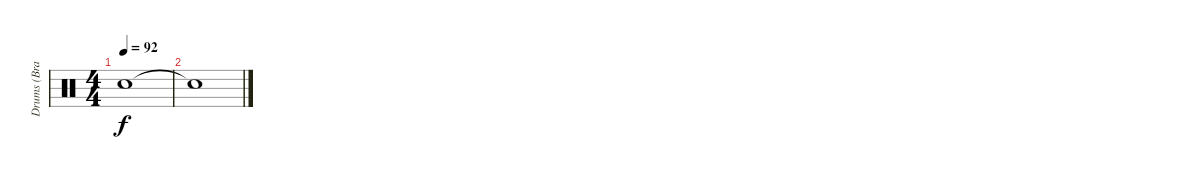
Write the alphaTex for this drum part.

\track ("Drums (Brandon Saller)" "Drums (Bra") {instrument percussion}
\staff {score}
\articulation defaults
\ts (4 4)
\tempo 92
\clef neutral
\ks c "Snare (hit)"{t}.1{dy f}
|
"Snare (hit)"{t}.1
